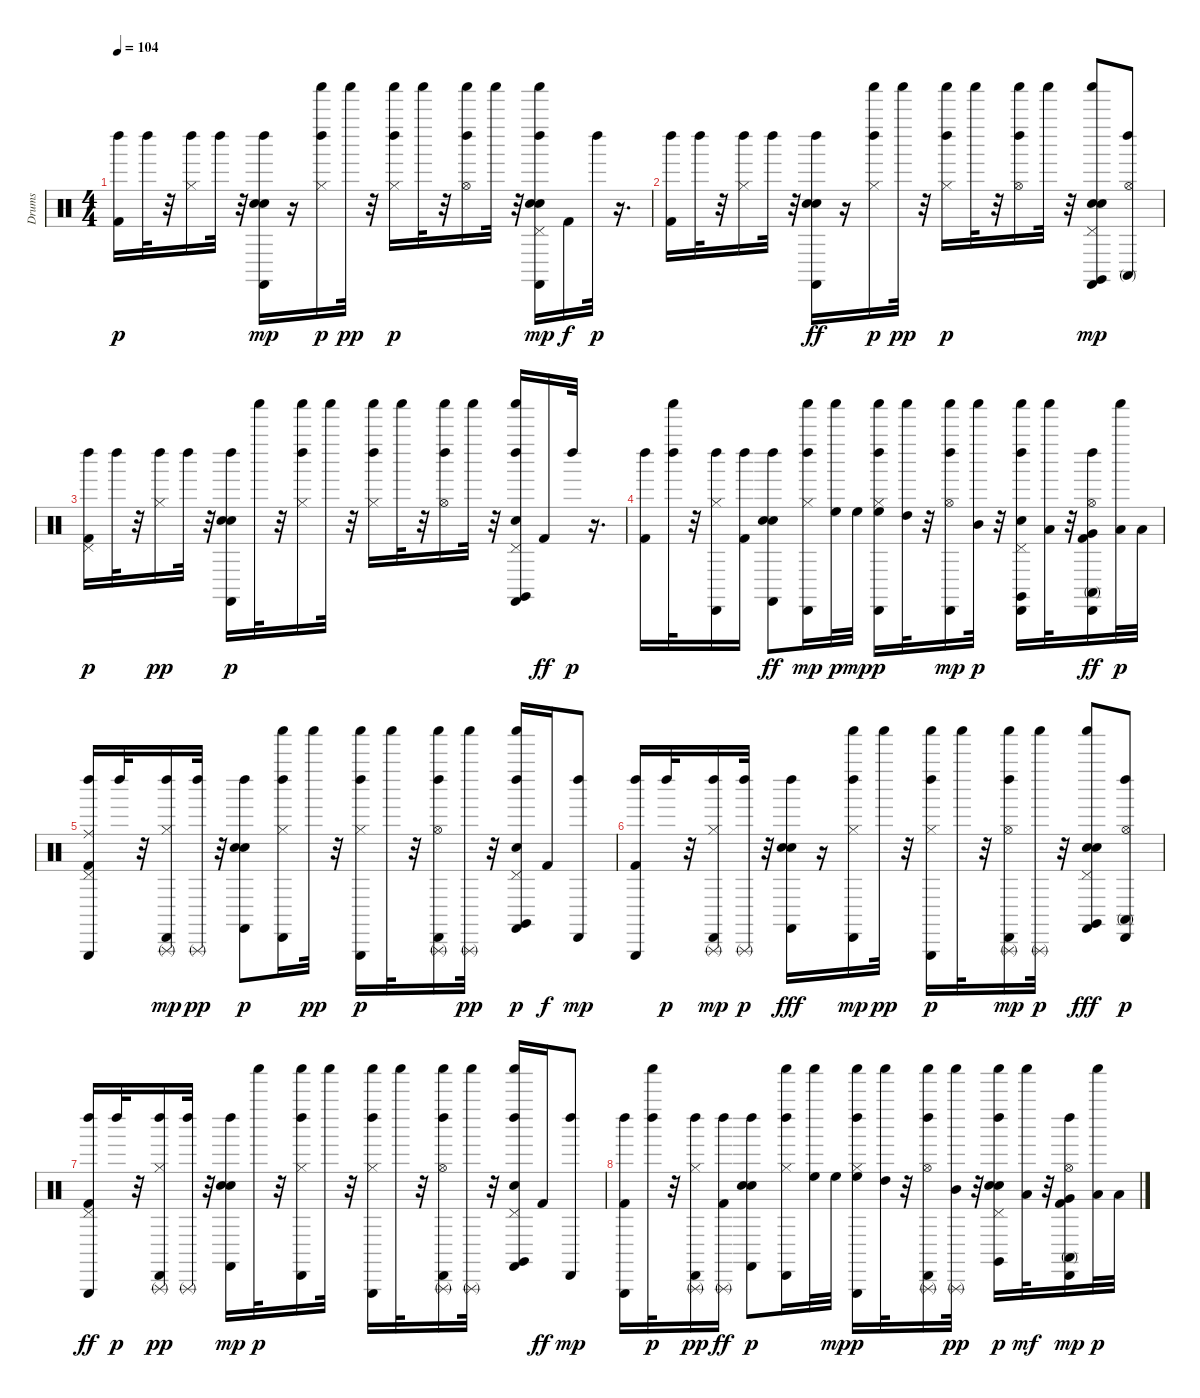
\track ("Drums" "Drums") {instrument percussion}
\staff {score}
\articulation defaults
\ts (4 4)
\tempo 104
\clef neutral
\ks c
("Left Maraca (hit)" "Kick (hit) 2").16{dy p} "Left Maraca (hit)".32 r.32 ("Left Maraca (hit)" "Hi-Hat (closed)").16 "Left Maraca (hit)".32 r.32 ("Left Maraca (hit)" "Hand Clap (hit)" "Castanets (hit)" "Electric Snare (hit)").16{dy mp} r.16 ("Hi-Hat (closed)" "Shaker (hit)" "Left Maraca (hit)").16{dy p} "Shaker (hit)".32{dy pp} r.32 ("Hi-Hat (closed)" "Left Maraca (hit)" "Shaker (hit)").16{dy p} "Shaker (hit)".32 r.32 ("Left Maraca (hit)" "Shaker (hit)" "Hi-Hat (open)").16 "Shaker (hit)".32 r.32 ("Left Maraca (hit)" "Shaker (hit)" "Castanets (hit)" "Electric Snare (hit)" "Hand Clap (hit)" "Pedal Hi-Hat (hit)").16{dy mp} "Kick (hit) 2".16{dy f} "Left Maraca (hit)".32{dy p} r.16{d} |
("Left Maraca (hit)" "Kick (hit) 2").16 "Left Maraca (hit)".32 r.32 ("Hi-Hat (closed)" "Left Maraca (hit)").16 "Left Maraca (hit)".32 r.32 ("Left Maraca (hit)" "Electric Snare (hit)" "Hand Clap (hit)" "Castanets (hit)").16{dy ff} r.16 ("Shaker (hit)" "Hi-Hat (closed)" "Left Maraca (hit)").16{dy p} "Shaker (hit)".32{dy pp} r.32 ("Hi-Hat (closed)" "Left Maraca (hit)" "Shaker (hit)").16{dy p} "Shaker (hit)".32 r.32 ("Shaker (hit)" "Left Maraca (hit)" "Hi-Hat (open)").16 "Shaker (hit)".32 r.32 ("Pedal Hi-Hat (hit)" "Castanets (hit)" "Shaker (hit)" "Hand Clap (hit)" "Claves (hit)" "Electric Snare (hit)").8{dy mp} ("Conga high (mute)" "Left Maraca (hit)" "Hi-Hat (open)").8 |
("Kick (hit) 2" "Left Maraca (hit)" "Pedal Hi-Hat (hit)").16{dy p} "Left Maraca (hit)".32 r.32 ("Hi-Hat (closed)" "Left Maraca (hit)").16{dy pp} "Left Maraca (hit)".32 r.32 ("Electric Snare (hit)" "Hand Clap (hit)" "Castanets (hit)" "Left Maraca (hit)").16{dy p} "Shaker (hit)".32 r.32 ("Hi-Hat (closed)" "Left Maraca (hit)" "Shaker (hit)").16 "Shaker (hit)".32 r.32 ("Left Maraca (hit)" "Hi-Hat (closed)" "Shaker (hit)").16 "Shaker (hit)".32 r.32 ("Hi-Hat (open)" "Shaker (hit)" "Left Maraca (hit)").16 "Shaker (hit)".32 r.32 ("Castanets (hit)" "Claves (hit)" "Pedal Hi-Hat (hit)" "Hand Clap (hit)" "Left Maraca (hit)" "Shaker (hit)").16 "Kick (hit) 2".16{dy ff} "Left Maraca (hit)".32{dy p} r.16{d} |
("Kick (hit) 2" "Left Maraca (hit)").16 ("Shaker (hit)" "Left Maraca (hit)").32 r.32 ("Cabasa (hit)" "Left Maraca (hit)" "Hi-Hat (closed)").16 ("Kick (hit) 2" "Left Maraca (hit)").16 ("Electric Snare (hit)" "Hand Clap (hit)" "Left Maraca (hit)" "Castanets (hit)").8{dy ff} ("Hi-Hat (closed)" "Shaker (hit)" "Left Maraca (hit)" "Cabasa (hit)").16{dy mp} ("High Floor Tom (hit)" "Shaker (hit)").32{dy p} "High Floor Tom (hit)".32{dy mp} ("Left Maraca (hit)" "Shaker (hit)" "Cabasa (hit)" "High Floor Tom (hit)" "Hi-Hat (closed)").16{dy p} ("High Tom (hit)" "Shaker (hit)").32 r.32 ("Left Maraca (hit)" "Hi-Hat (open)" "Shaker (hit)" "Cabasa (hit)").16{dy mp} ("Mid Tom (hit)" "Shaker (hit)").32{dy p} r.32 ("Cabasa (hit)" "Hand Clap (hit)" "Left Maraca (hit)" "Claves (hit)" "Pedal Hi-Hat (hit)" "Shaker (hit)").16 ("Low Tom (hit)" "Shaker (hit)").32 r.32 ("Conga high (mute)" "Hi-Hat (open)" "Cabasa (hit)" "Left Maraca (hit)" "Very Low Tom (hit)" "Kick (hit) 2").16{dy ff} ("Low Floor Tom (hit)" "Shaker (hit)").32{dy p} "Low Floor Tom (hit)".32 |
("Kick (hit) 2" "Triangle (hit)" "Left Maraca (hit)" "Ride (middle)" "Pedal Hi-Hat (hit)").16 "Left Maraca (hit)".32 r.32 ("Triangle (rnute)" "Hi-Hat (closed)" "Left Maraca (hit)" "Cabasa (hit)").16{dy mp} ("Left Maraca (hit)" "Triangle (rnute)").32{dy pp} r.32 ("Castanets (hit)" "Hand Clap (hit)" "Electric Snare (hit)" "Left Maraca (hit)").8{dy p} ("Cabasa (hit)" "Shaker (hit)" "Hi-Hat (closed)" "Left Maraca (hit)").16 "Shaker (hit)".32{dy pp} r.32 ("Triangle (hit)" "Shaker (hit)" "Left Maraca (hit)" "Hi-Hat (closed)").16{dy p} "Shaker (hit)".32 r.32 ("Cabasa (hit)" "Triangle (rnute)" "Left Maraca (hit)" "Shaker (hit)" "Hi-Hat (open)").16 ("Shaker (hit)" "Triangle (rnute)").32{dy pp} r.32 ("Electric Snare (hit)" "Claves (hit)" "Left Maraca (hit)" "Castanets (hit)" "Pedal Hi-Hat (hit)" "Shaker (hit)").16{dy p} "Kick (hit) 2".16{dy f} ("Left Maraca (hit)" "Cabasa (hit)").8{dy mp} |
("Kick (hit) 2" "Left Maraca (hit)" "Triangle (hit)").16 "Left Maraca (hit)".32{dy p} r.32 ("Triangle (rnute)" "Left Maraca (hit)" "Hi-Hat (closed)" "Cabasa (hit)").16{dy mp} ("Triangle (rnute)" "Left Maraca (hit)").32{dy p} r.32 ("Electric Snare (hit)" "Castanets (hit)" "Left Maraca (hit)" "Hand Clap (hit)").16{dy fff} r.16 ("Shaker (hit)" "Left Maraca (hit)" "Hi-Hat (closed)" "Cabasa (hit)").16{dy mp} "Shaker (hit)".32{dy pp} r.32 ("Hi-Hat (closed)" "Triangle (hit)" "Left Maraca (hit)" "Shaker (hit)").16{dy p} "Shaker (hit)".32 r.32 ("Hi-Hat (open)" "Shaker (hit)" "Left Maraca (hit)" "Triangle (rnute)" "Cabasa (hit)").16{dy mp} ("Triangle (rnute)" "Shaker (hit)").32{dy p} r.32 ("Claves (hit)" "Pedal Hi-Hat (hit)" "Electric Snare (hit)" "Shaker (hit)" "Castanets (hit)" "Hand Clap (hit)").8{dy fff} ("Cabasa (hit)" "Conga high (mute)" "Hi-Hat (open)" "Left Maraca (hit)").8{dy p} |
("Pedal Hi-Hat (hit)" "Triangle (hit)" "Left Maraca (hit)" "Kick (hit) 2").16{dy ff} "Left Maraca (hit)".32{dy p} r.32 ("Cabasa (hit)" "Hi-Hat (closed)" "Triangle (rnute)" "Left Maraca (hit)").16{dy pp} ("Triangle (rnute)" "Left Maraca (hit)").32 r.32 ("Left Maraca (hit)" "Hand Clap (hit)" "Castanets (hit)" "Electric Snare (hit)").16{dy mp} "Shaker (hit)".32{dy p} r.32 ("Cabasa (hit)" "Shaker (hit)" "Left Maraca (hit)" "Hi-Hat (closed)").16 "Shaker (hit)".32 r.32 ("Shaker (hit)" "Hi-Hat (closed)" "Triangle (hit)" "Left Maraca (hit)").16 "Shaker (hit)".32 r.32 ("Hi-Hat (open)" "Left Maraca (hit)" "Cabasa (hit)" "Triangle (rnute)" "Shaker (hit)").16 ("Triangle (rnute)" "Shaker (hit)").32 r.32 ("Pedal Hi-Hat (hit)" "Castanets (hit)" "Electric Snare (hit)" "Claves (hit)" "Shaker (hit)" "Left Maraca (hit)").16 "Kick (hit) 2".16{dy ff} ("Left Maraca (hit)" "Cabasa (hit)").8{dy mp} |
("Kick (hit) 2" "Left Maraca (hit)" "Triangle (hit)").16 ("Left Maraca (hit)" "Shaker (hit)").32{dy p} r.32 ("Hi-Hat (closed)" "Cabasa (hit)" "Left Maraca (hit)" "Triangle (rnute)").16{dy pp} ("Left Maraca (hit)" "Triangle (rnute)" "Kick (hit) 2").16{dy ff} ("Castanets (hit)" "Hand Clap (hit)" "Electric Snare (hit)" "Left Maraca (hit)").8{dy p} ("Cabasa (hit)" "Hi-Hat (closed)" "Shaker (hit)" "Left Maraca (hit)").16 ("High Floor Tom (hit)" "Shaker (hit)").32 "High Floor Tom (hit)".32{dy mp} ("High Floor Tom (hit)" "Shaker (hit)" "Left Maraca (hit)" "Triangle (hit)" "Hi-Hat (closed)").16{dy p} ("High Tom (hit)" "Shaker (hit)").32 r.32 ("Shaker (hit)" "Cabasa (hit)" "Hi-Hat (open)" "Triangle (rnute)" "Left Maraca (hit)").16 ("Mid Tom (hit)" "Shaker (hit)" "Triangle (rnute)").32{dy pp} r.32 ("Pedal Hi-Hat (hit)" "Shaker (hit)" "Electric Snare (hit)" "Hand Clap (hit)" "Claves (hit)" "Left Maraca (hit)").16{dy p} ("Shaker (hit)" "Low Tom (hit)").32{dy mf} r.32 ("Left Maraca (hit)" "Conga high (mute)" "Kick (hit) 2" "Very Low Tom (hit)" "Hi-Hat (open)" "Cabasa (hit)").16{dy mp} ("Shaker (hit)" "Low Floor Tom (hit)").32{dy p} "Low Floor Tom (hit)".32
